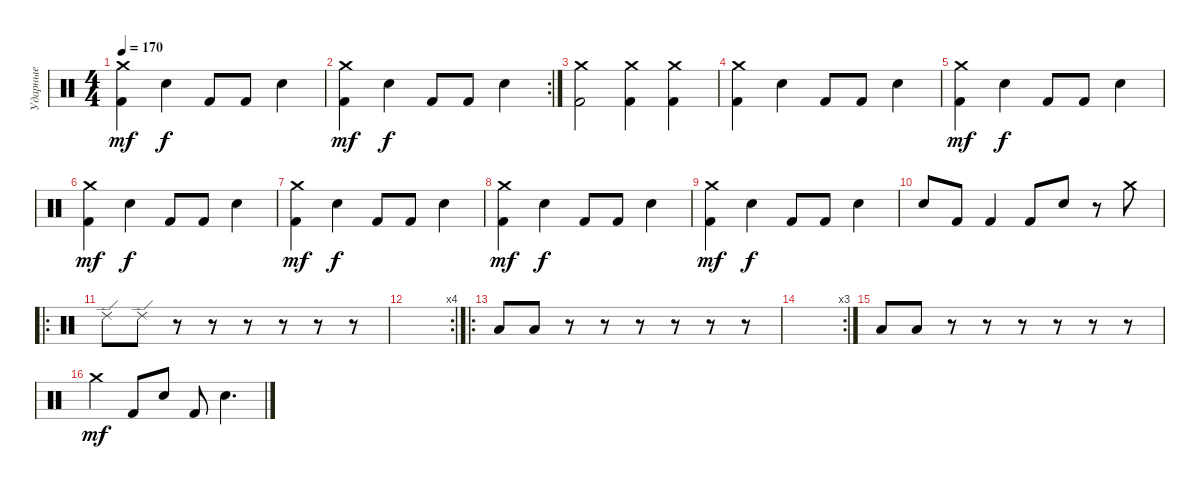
\track ("Ударные" "Ударные") {instrument percussion}
\staff {score}
\articulation defaults
\ts (4 4)
\tempo 170
\clef neutral
\ks c
("Kick (hit) 2" "Crash medium (hit)").4{dy mf} "Snare (hit) 2".4{dy f} "Kick (hit) 2".8 "Kick (hit) 2".8 "Snare (hit) 2".4 |
\rc 2
("Kick (hit) 2" "Crash medium (hit)").4{dy mf} "Snare (hit) 2".4{dy f} "Kick (hit) 2".8 "Kick (hit) 2".8 "Snare (hit) 2".4 |
("Kick (hit) 2" "Crash medium (hit)").2 ("Kick (hit) 2" "Crash medium (hit)").4 ("Kick (hit) 2" "Crash medium (hit)").4 |
("Kick (hit) 2" "Crash medium (hit)").4 "Snare (hit) 2".4 "Kick (hit) 2".8 "Kick (hit) 2".8 "Snare (hit) 2".4 |
("Kick (hit) 2" "Crash medium (hit)").4{dy mf} "Snare (hit) 2".4{dy f} "Kick (hit) 2".8 "Kick (hit) 2".8 "Snare (hit) 2".4 |
("Kick (hit) 2" "Crash medium (hit)").4{dy mf} "Snare (hit) 2".4{dy f} "Kick (hit) 2".8 "Kick (hit) 2".8 "Snare (hit) 2".4 |
("Kick (hit) 2" "Crash medium (hit)").4{dy mf} "Snare (hit) 2".4{dy f} "Kick (hit) 2".8 "Kick (hit) 2".8 "Snare (hit) 2".4 |
("Kick (hit) 2" "Crash medium (hit)").4{dy mf} "Snare (hit) 2".4{dy f} "Kick (hit) 2".8 "Kick (hit) 2".8 "Snare (hit) 2".4 |
("Kick (hit) 2" "Crash medium (hit)").4{dy mf} "Snare (hit) 2".4{dy f} "Kick (hit) 2".8 "Kick (hit) 2".8 "Snare (hit) 2".4 |
"Snare (hit) 2".8 "Kick (hit) 2".8 "Kick (hit) 2".4 "Kick (hit) 2".8 "Snare (hit) 2".8 r.8 "Crash medium (hit)".8 |
\ro "Ride (edge) 2".8 "Ride (edge) 2".8
r.8 r.8 r.8 r.8 r.8 r.8 |
\rc 4
|
\ro "Low Floor Tom (hit)".8 "Low Floor Tom (hit)".8
r.8 r.8 r.8 r.8 r.8 r.8 |
\rc 3
|
"Low Floor Tom (hit)".8 "Low Floor Tom (hit)".8 r.8 r.8 r.8 r.8 r.8 r.8 |
"Crash medium (hit)".4{dy mf} "Kick (hit) 2".8 "Electric Snare (hit)".8 "Kick (hit) 2".8 "Electric Snare (hit)".4{d}
